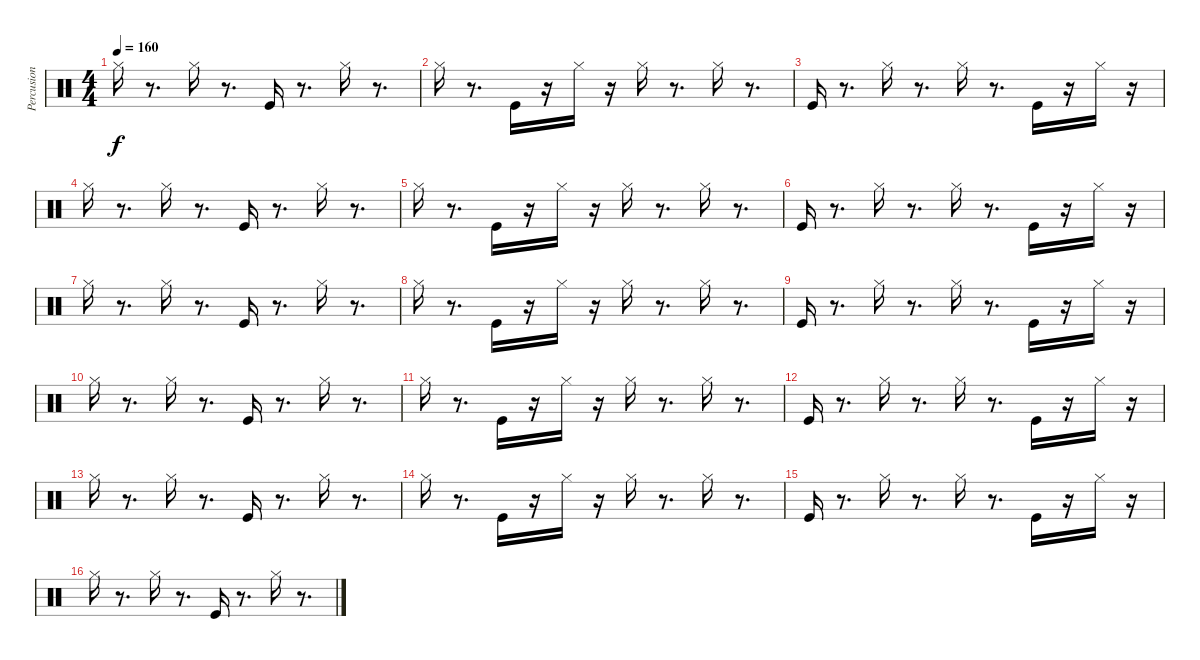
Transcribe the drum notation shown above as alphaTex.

\track ("Percusion" "Percusion") {instrument percussion}
\staff {score}
\articulation defaults
\ts (4 4)
\tempo 160
\clef neutral
\ks c "Hi-Hat (closed)".16{dy f}
r.8{d} "Hi-Hat (closed)".16 r.8{d} "Kick (hit)".16 r.8{d} "Hi-Hat (closed)".16 r.8{d} |
"Hi-Hat (closed)".16 r.8{d} "Kick (hit)".16 r.16 "Hi-Hat (closed)".16 r.16 "Hi-Hat (closed)".16 r.8{d} "Hi-Hat (closed)".16 r.8{d} |
"Kick (hit)".16 r.8{d} "Hi-Hat (closed)".16 r.8{d} "Hi-Hat (closed)".16 r.8{d} "Kick (hit)".16 r.16 "Hi-Hat (closed)".16 r.16 |
"Hi-Hat (closed)".16 r.8{d} "Hi-Hat (closed)".16 r.8{d} "Kick (hit)".16 r.8{d} "Hi-Hat (closed)".16 r.8{d} |
"Hi-Hat (closed)".16 r.8{d} "Kick (hit)".16 r.16 "Hi-Hat (closed)".16 r.16 "Hi-Hat (closed)".16 r.8{d} "Hi-Hat (closed)".16 r.8{d} |
"Kick (hit)".16 r.8{d} "Hi-Hat (closed)".16 r.8{d} "Hi-Hat (closed)".16 r.8{d} "Kick (hit)".16 r.16 "Hi-Hat (closed)".16 r.16 |
"Hi-Hat (closed)".16 r.8{d} "Hi-Hat (closed)".16 r.8{d} "Kick (hit)".16 r.8{d} "Hi-Hat (closed)".16 r.8{d} |
"Hi-Hat (closed)".16 r.8{d} "Kick (hit)".16 r.16 "Hi-Hat (closed)".16 r.16 "Hi-Hat (closed)".16 r.8{d} "Hi-Hat (closed)".16 r.8{d} |
"Kick (hit)".16 r.8{d} "Hi-Hat (closed)".16 r.8{d} "Hi-Hat (closed)".16 r.8{d} "Kick (hit)".16 r.16 "Hi-Hat (closed)".16 r.16 |
"Hi-Hat (closed)".16 r.8{d} "Hi-Hat (closed)".16 r.8{d} "Kick (hit)".16 r.8{d} "Hi-Hat (closed)".16 r.8{d} |
"Hi-Hat (closed)".16 r.8{d} "Kick (hit)".16 r.16 "Hi-Hat (closed)".16 r.16 "Hi-Hat (closed)".16 r.8{d} "Hi-Hat (closed)".16 r.8{d} |
"Kick (hit)".16 r.8{d} "Hi-Hat (closed)".16 r.8{d} "Hi-Hat (closed)".16 r.8{d} "Kick (hit)".16 r.16 "Hi-Hat (closed)".16 r.16 |
"Hi-Hat (closed)".16 r.8{d} "Hi-Hat (closed)".16 r.8{d} "Kick (hit)".16 r.8{d} "Hi-Hat (closed)".16 r.8{d} |
"Hi-Hat (closed)".16 r.8{d} "Kick (hit)".16 r.16 "Hi-Hat (closed)".16 r.16 "Hi-Hat (closed)".16 r.8{d} "Hi-Hat (closed)".16 r.8{d} |
"Kick (hit)".16 r.8{d} "Hi-Hat (closed)".16 r.8{d} "Hi-Hat (closed)".16 r.8{d} "Kick (hit)".16 r.16 "Hi-Hat (closed)".16 r.16 |
"Hi-Hat (closed)".16 r.8{d} "Hi-Hat (closed)".16 r.8{d} "Kick (hit)".16 r.8{d} "Hi-Hat (closed)".16 r.8{d}
